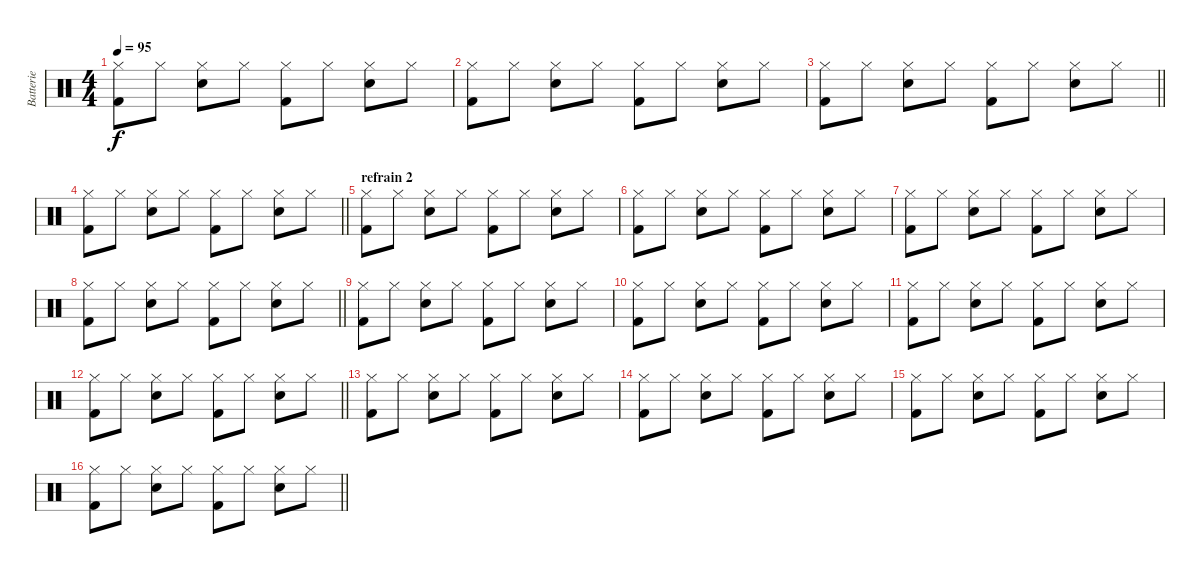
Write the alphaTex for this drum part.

\track ("Batterie" "Batterie") {instrument percussion}
\staff {score}
\articulation defaults
\ts (4 4)
\tempo 95
\clef neutral
\ks c
("Hi-Hat (closed)" "Kick (hit) 2").8{dy f} "Hi-Hat (closed)".8 ("Hi-Hat (closed)" "Electric Snare (hit)").8 "Hi-Hat (closed)".8 ("Hi-Hat (closed)" "Kick (hit) 2").8 "Hi-Hat (closed)".8 ("Hi-Hat (closed)" "Electric Snare (hit)").8 "Hi-Hat (closed)".8 |
("Hi-Hat (closed)" "Kick (hit) 2").8 "Hi-Hat (closed)".8 ("Hi-Hat (closed)" "Electric Snare (hit)").8 "Hi-Hat (closed)".8 ("Hi-Hat (closed)" "Kick (hit) 2").8 "Hi-Hat (closed)".8 ("Hi-Hat (closed)" "Electric Snare (hit)").8 "Hi-Hat (closed)".8 |
\barLineRight lightlight
("Hi-Hat (closed)" "Kick (hit) 2").8 "Hi-Hat (closed)".8 ("Hi-Hat (closed)" "Electric Snare (hit)").8 "Hi-Hat (closed)".8 ("Hi-Hat (closed)" "Kick (hit) 2").8 "Hi-Hat (closed)".8 ("Hi-Hat (closed)" "Electric Snare (hit)").8 "Hi-Hat (closed)".8 |
\barLineRight lightlight
("Hi-Hat (closed)" "Kick (hit) 2").8 "Hi-Hat (closed)".8 ("Hi-Hat (closed)" "Electric Snare (hit)").8 "Hi-Hat (closed)".8 ("Hi-Hat (closed)" "Kick (hit) 2").8 "Hi-Hat (closed)".8 ("Hi-Hat (closed)" "Electric Snare (hit)").8 "Hi-Hat (closed)".8 |
\section ("" "refrain 2")
("Hi-Hat (closed)" "Kick (hit) 2").8 "Hi-Hat (closed)".8 ("Hi-Hat (closed)" "Electric Snare (hit)").8 "Hi-Hat (closed)".8 ("Hi-Hat (closed)" "Kick (hit) 2").8 "Hi-Hat (closed)".8 ("Hi-Hat (closed)" "Electric Snare (hit)").8 "Hi-Hat (closed)".8 |
("Hi-Hat (closed)" "Kick (hit) 2").8 "Hi-Hat (closed)".8 ("Hi-Hat (closed)" "Electric Snare (hit)").8 "Hi-Hat (closed)".8 ("Hi-Hat (closed)" "Kick (hit) 2").8 "Hi-Hat (closed)".8 ("Hi-Hat (closed)" "Electric Snare (hit)").8 "Hi-Hat (closed)".8 |
("Hi-Hat (closed)" "Kick (hit) 2").8 "Hi-Hat (closed)".8 ("Hi-Hat (closed)" "Electric Snare (hit)").8 "Hi-Hat (closed)".8 ("Hi-Hat (closed)" "Kick (hit) 2").8 "Hi-Hat (closed)".8 ("Hi-Hat (closed)" "Electric Snare (hit)").8 "Hi-Hat (closed)".8 |
\barLineRight lightlight
("Hi-Hat (closed)" "Kick (hit) 2").8 "Hi-Hat (closed)".8 ("Hi-Hat (closed)" "Electric Snare (hit)").8 "Hi-Hat (closed)".8 ("Hi-Hat (closed)" "Kick (hit) 2").8 "Hi-Hat (closed)".8 ("Hi-Hat (closed)" "Electric Snare (hit)").8 "Hi-Hat (closed)".8 |
("Hi-Hat (closed)" "Kick (hit) 2").8 "Hi-Hat (closed)".8 ("Hi-Hat (closed)" "Electric Snare (hit)").8 "Hi-Hat (closed)".8 ("Hi-Hat (closed)" "Kick (hit) 2").8 "Hi-Hat (closed)".8 ("Hi-Hat (closed)" "Electric Snare (hit)").8 "Hi-Hat (closed)".8 |
("Hi-Hat (closed)" "Kick (hit) 2").8 "Hi-Hat (closed)".8 ("Hi-Hat (closed)" "Electric Snare (hit)").8 "Hi-Hat (closed)".8 ("Hi-Hat (closed)" "Kick (hit) 2").8 "Hi-Hat (closed)".8 ("Hi-Hat (closed)" "Electric Snare (hit)").8 "Hi-Hat (closed)".8 |
("Hi-Hat (closed)" "Kick (hit) 2").8 "Hi-Hat (closed)".8 ("Hi-Hat (closed)" "Electric Snare (hit)").8 "Hi-Hat (closed)".8 ("Hi-Hat (closed)" "Kick (hit) 2").8 "Hi-Hat (closed)".8 ("Hi-Hat (closed)" "Electric Snare (hit)").8 "Hi-Hat (closed)".8 |
\barLineRight lightlight
("Hi-Hat (closed)" "Kick (hit) 2").8 "Hi-Hat (closed)".8 ("Hi-Hat (closed)" "Electric Snare (hit)").8 "Hi-Hat (closed)".8 ("Hi-Hat (closed)" "Kick (hit) 2").8 "Hi-Hat (closed)".8 ("Hi-Hat (closed)" "Electric Snare (hit)").8 "Hi-Hat (closed)".8 |
("Hi-Hat (closed)" "Kick (hit) 2").8 "Hi-Hat (closed)".8 ("Hi-Hat (closed)" "Electric Snare (hit)").8 "Hi-Hat (closed)".8 ("Hi-Hat (closed)" "Kick (hit) 2").8 "Hi-Hat (closed)".8 ("Hi-Hat (closed)" "Electric Snare (hit)").8 "Hi-Hat (closed)".8 |
("Hi-Hat (closed)" "Kick (hit) 2").8 "Hi-Hat (closed)".8 ("Hi-Hat (closed)" "Electric Snare (hit)").8 "Hi-Hat (closed)".8 ("Hi-Hat (closed)" "Kick (hit) 2").8 "Hi-Hat (closed)".8 ("Hi-Hat (closed)" "Electric Snare (hit)").8 "Hi-Hat (closed)".8 |
("Hi-Hat (closed)" "Kick (hit) 2").8 "Hi-Hat (closed)".8 ("Hi-Hat (closed)" "Electric Snare (hit)").8 "Hi-Hat (closed)".8 ("Hi-Hat (closed)" "Kick (hit) 2").8 "Hi-Hat (closed)".8 ("Hi-Hat (closed)" "Electric Snare (hit)").8 "Hi-Hat (closed)".8 |
\barLineRight lightlight
("Hi-Hat (closed)" "Kick (hit) 2").8 "Hi-Hat (closed)".8 ("Hi-Hat (closed)" "Electric Snare (hit)").8 "Hi-Hat (closed)".8 ("Hi-Hat (closed)" "Kick (hit) 2").8 "Hi-Hat (closed)".8 ("Hi-Hat (closed)" "Electric Snare (hit)").8 "Hi-Hat (closed)".8
